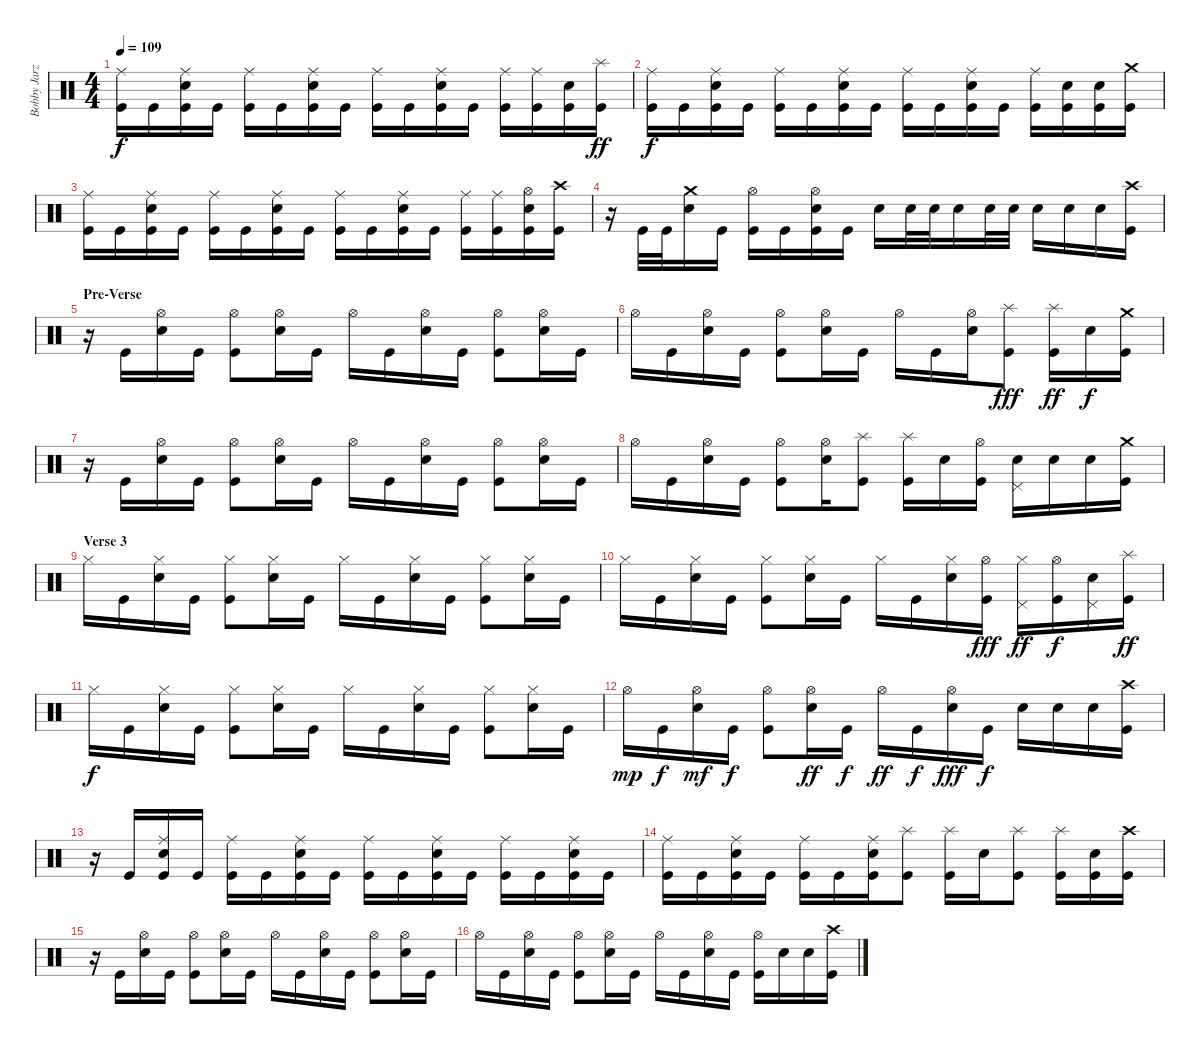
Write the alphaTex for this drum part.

\track ("Bobby Jarzombek" "Bobby Jarz") {instrument percussion}
\staff {score}
\articulation defaults
\ts (4 4)
\tempo 109
\clef neutral
\ks c
("Kick (hit)" "Ride (middle)").16{dy f} "Kick (hit)".16 ("Kick (hit)" "Ride (middle)" "Electric Snare (hit)").16 "Kick (hit)".16 ("Kick (hit)" "Ride (middle)").16 "Kick (hit)".16 ("Kick (hit)" "Ride (middle)" "Electric Snare (hit)").16 "Kick (hit)".16 ("Kick (hit)" "Ride (middle)").16 "Kick (hit)".16 ("Kick (hit)" "Ride (middle)" "Electric Snare (hit)").16 "Kick (hit)".16 ("Kick (hit)" "Ride (middle)").16 ("Kick (hit)" "Ride (middle)").16 ("Kick (hit)" "Electric Snare (hit)").16 ("Kick (hit)" "Splash (hit)").16{dy ff} |
("Kick (hit)" "Ride (middle)").16{dy f} "Kick (hit)".16 ("Kick (hit)" "Ride (middle)" "Electric Snare (hit)").16 "Kick (hit)".16 ("Kick (hit)" "Ride (middle)").16 "Kick (hit)".16 ("Kick (hit)" "Ride (middle)" "Electric Snare (hit)").16 "Kick (hit)".16 ("Kick (hit)" "Ride (middle)").16 "Kick (hit)".16 ("Kick (hit)" "Ride (middle)" "Electric Snare (hit)").16 "Kick (hit)".16 ("Kick (hit)" "Ride (middle)").16 ("Kick (hit)" "Electric Snare (hit)").16 ("Kick (hit)" "Electric Snare (hit)").16 ("Kick (hit)" "Crash medium (hit)").16 |
("Kick (hit)" "Ride (middle)").16 "Kick (hit)".16 ("Kick (hit)" "Ride (middle)" "Electric Snare (hit)").16 "Kick (hit)".16 ("Kick (hit)" "Ride (middle)").16 "Kick (hit)".16 ("Kick (hit)" "Ride (middle)" "Electric Snare (hit)").16 "Kick (hit)".16 ("Kick (hit)" "Ride (middle)").16 "Kick (hit)".16 ("Kick (hit)" "Ride (middle)" "Electric Snare (hit)").16 "Kick (hit)".16 ("Kick (hit)" "Ride (middle)").16 ("Kick (hit)" "Ride (middle)").16 ("Kick (hit)" "Hi-Hat (open)" "Electric Snare (hit)").16 ("Kick (hit)" "Crash high (hit)").16 |
r.16 "Kick (hit)".32 "Kick (hit)".32 ("Crash medium (hit)" "Electric Snare (hit)").16 "Kick (hit)".16 ("Kick (hit)" "Hi-Hat (open)").16 "Kick (hit)".16 ("Kick (hit)" "Electric Snare (hit)" "Hi-Hat (open)").16 "Kick (hit)".16 "Electric Snare (hit)".16 "Electric Snare (hit)".32 "Electric Snare (hit)".32 "Electric Snare (hit)".16 "Electric Snare (hit)".32 "Electric Snare (hit)".32 "Electric Snare (hit)".16 "Electric Snare (hit)".16 "Electric Snare (hit)".16 ("Crash high (hit)" "Kick (hit)").16 |
\section ("" "Pre-Verse")
r.16 "Kick (hit)".16 ("Hi-Hat (open)" "Electric Snare (hit)").16 "Kick (hit)".16 ("Hi-Hat (open)" "Kick (hit)").8 ("Hi-Hat (open)" "Electric Snare (hit)").16 "Kick (hit)".16 "Hi-Hat (open)".16 "Kick (hit)".16 ("Hi-Hat (open)" "Electric Snare (hit)").16 "Kick (hit)".16 ("Hi-Hat (open)" "Kick (hit)").8 ("Hi-Hat (open)" "Electric Snare (hit)").16 "Kick (hit)".16 |
"Hi-Hat (open)".16 "Kick (hit)".16 ("Hi-Hat (open)" "Electric Snare (hit)").16 "Kick (hit)".16 ("Hi-Hat (open)" "Kick (hit)").8 ("Hi-Hat (open)" "Electric Snare (hit)").16 "Kick (hit)".16 "Hi-Hat (open)".16 "Kick (hit)".16 ("Hi-Hat (open)" "Electric Snare (hit)").16 ("Splash (hit)" "Kick (hit)").8{dy fff} ("Splash (hit)" "Kick (hit)").16{dy ff} "Electric Snare (hit)".16{dy f} ("Crash medium (hit)" "Kick (hit)").16 |
r.16 "Kick (hit)".16 ("Hi-Hat (open)" "Electric Snare (hit)").16 "Kick (hit)".16 ("Hi-Hat (open)" "Kick (hit)").8 ("Hi-Hat (open)" "Electric Snare (hit)").16 "Kick (hit)".16 "Hi-Hat (open)".16 "Kick (hit)".16 ("Hi-Hat (open)" "Electric Snare (hit)").16 "Kick (hit)".16 ("Hi-Hat (open)" "Kick (hit)").8 ("Hi-Hat (open)" "Electric Snare (hit)").16 "Kick (hit)".16 |
"Hi-Hat (open)".16 "Kick (hit)".16 ("Hi-Hat (open)" "Electric Snare (hit)").16 "Kick (hit)".16 ("Hi-Hat (open)" "Kick (hit)").8 ("Hi-Hat (open)" "Electric Snare (hit)").16 ("Splash (hit)" "Kick (hit)").8 ("Splash (hit)" "Kick (hit)").16 "Electric Snare (hit)".16 ("Hi-Hat (open)" "Kick (hit)").16 ("Electric Snare (hit)" "Pedal Hi-Hat (hit)").16 "Electric Snare (hit)".16 "Electric Snare (hit)".16 ("Crash medium (hit)" "Kick (hit)").16 |
\section ("" "Verse 3")
"Hi-Hat (closed)".16 "Kick (hit)".16 ("Hi-Hat (closed)" "Electric Snare (hit)").16 "Kick (hit)".16 ("Hi-Hat (closed)" "Kick (hit)").8 ("Hi-Hat (closed)" "Electric Snare (hit)").16 "Kick (hit)".16 "Hi-Hat (closed)".16 "Kick (hit)".16 ("Hi-Hat (closed)" "Electric Snare (hit)").16 "Kick (hit)".16 ("Hi-Hat (closed)" "Kick (hit)").8 ("Hi-Hat (closed)" "Electric Snare (hit)").16 "Kick (hit)".16 |
"Hi-Hat (closed)".16 "Kick (hit)".16 ("Hi-Hat (closed)" "Electric Snare (hit)").16 "Kick (hit)".16 ("Hi-Hat (closed)" "Kick (hit)").8 ("Hi-Hat (closed)" "Electric Snare (hit)").16 "Kick (hit)".16 "Hi-Hat (closed)".16 "Kick (hit)".16 ("Hi-Hat (closed)" "Electric Snare (hit)").16 ("Hi-Hat (open)" "Kick (hit)").16{dy fff} ("Hi-Hat (closed)" "Pedal Hi-Hat (hit)").16{dy ff} ("Hi-Hat (open)" "Kick (hit)").16{dy f} ("Pedal Hi-Hat (hit)" "Electric Snare (hit)").16 ("Splash (hit)" "Kick (hit)").16{dy ff} |
"Hi-Hat (closed)".16{dy f} "Kick (hit)".16 ("Hi-Hat (closed)" "Electric Snare (hit)").16 "Kick (hit)".16 ("Hi-Hat (closed)" "Kick (hit)").8 ("Hi-Hat (closed)" "Electric Snare (hit)").16 "Kick (hit)".16 "Hi-Hat (closed)".16 "Kick (hit)".16 ("Hi-Hat (closed)" "Electric Snare (hit)").16 "Kick (hit)".16 ("Hi-Hat (closed)" "Kick (hit)").8 ("Hi-Hat (closed)" "Electric Snare (hit)").16 "Kick (hit)".16 |
"Hi-Hat (open)".16{dy mp} "Kick (hit)".16{dy f} ("Hi-Hat (open)" "Electric Snare (hit)").16{dy mf} "Kick (hit)".16{dy f} ("Hi-Hat (open)" "Kick (hit)").8 ("Hi-Hat (open)" "Electric Snare (hit)").16{dy ff} "Kick (hit)".16{dy f} "Hi-Hat (open)".16{dy ff} "Kick (hit)".16{dy f} ("Hi-Hat (open)" "Electric Snare (hit)").16{dy fff} "Kick (hit)".16{dy f} "Electric Snare (hit)".16 "Electric Snare (hit)".16 "Electric Snare (hit)".16 ("Crash high (hit)" "Kick (hit)").16 |
r.16 "Kick (hit)".16 ("Ride (middle)" "Electric Snare (hit)" "Kick (hit)").16 "Kick (hit)".16 ("Ride (middle)" "Kick (hit)").16 "Kick (hit)".16 ("Ride (middle)" "Electric Snare (hit)" "Kick (hit)").16 "Kick (hit)".16 ("Ride (middle)" "Kick (hit)").16 "Kick (hit)".16 ("Ride (middle)" "Electric Snare (hit)" "Kick (hit)").16 "Kick (hit)".16 ("Ride (middle)" "Kick (hit)").16 "Kick (hit)".16 ("Ride (middle)" "Electric Snare (hit)" "Kick (hit)").16 "Kick (hit)".16 |
("Ride (middle)" "Kick (hit)").16 "Kick (hit)".16 ("Ride (middle)" "Electric Snare (hit)" "Kick (hit)").16 "Kick (hit)".16 ("Ride (middle)" "Kick (hit)").16 "Kick (hit)".16 ("Ride (middle)" "Electric Snare (hit)" "Kick (hit)").16 ("Splash (hit)" "Kick (hit)").8 ("Splash (hit)" "Kick (hit)").16 "Electric Snare (hit)".16 ("Splash (hit)" "Kick (hit)").8 ("Splash (hit)" "Kick (hit)").16 ("Electric Snare (hit)" "Kick (hit)").16 ("Crash high (hit)" "Kick (hit)").16 |
r.16 "Kick (hit)".16 ("Hi-Hat (open)" "Electric Snare (hit)").16 "Kick (hit)".16 ("Hi-Hat (open)" "Kick (hit)").8 ("Hi-Hat (open)" "Electric Snare (hit)").16 "Kick (hit)".16 "Hi-Hat (open)".16 "Kick (hit)".16 ("Hi-Hat (open)" "Electric Snare (hit)").16 "Kick (hit)".16 ("Hi-Hat (open)" "Kick (hit)").8 ("Hi-Hat (open)" "Electric Snare (hit)").16 "Kick (hit)".16 |
"Hi-Hat (open)".16 "Kick (hit)".16 ("Hi-Hat (open)" "Electric Snare (hit)").16 "Kick (hit)".16 ("Hi-Hat (open)" "Kick (hit)").8 ("Hi-Hat (open)" "Electric Snare (hit)").16 "Kick (hit)".16 "Hi-Hat (open)".16 "Kick (hit)".16 ("Hi-Hat (open)" "Electric Snare (hit)").16 "Kick (hit)".16 ("Hi-Hat (open)" "Kick (hit)").16 "Electric Snare (hit)".16 "Electric Snare (hit)".16 ("Crash high (hit)" "Kick (hit)").16
